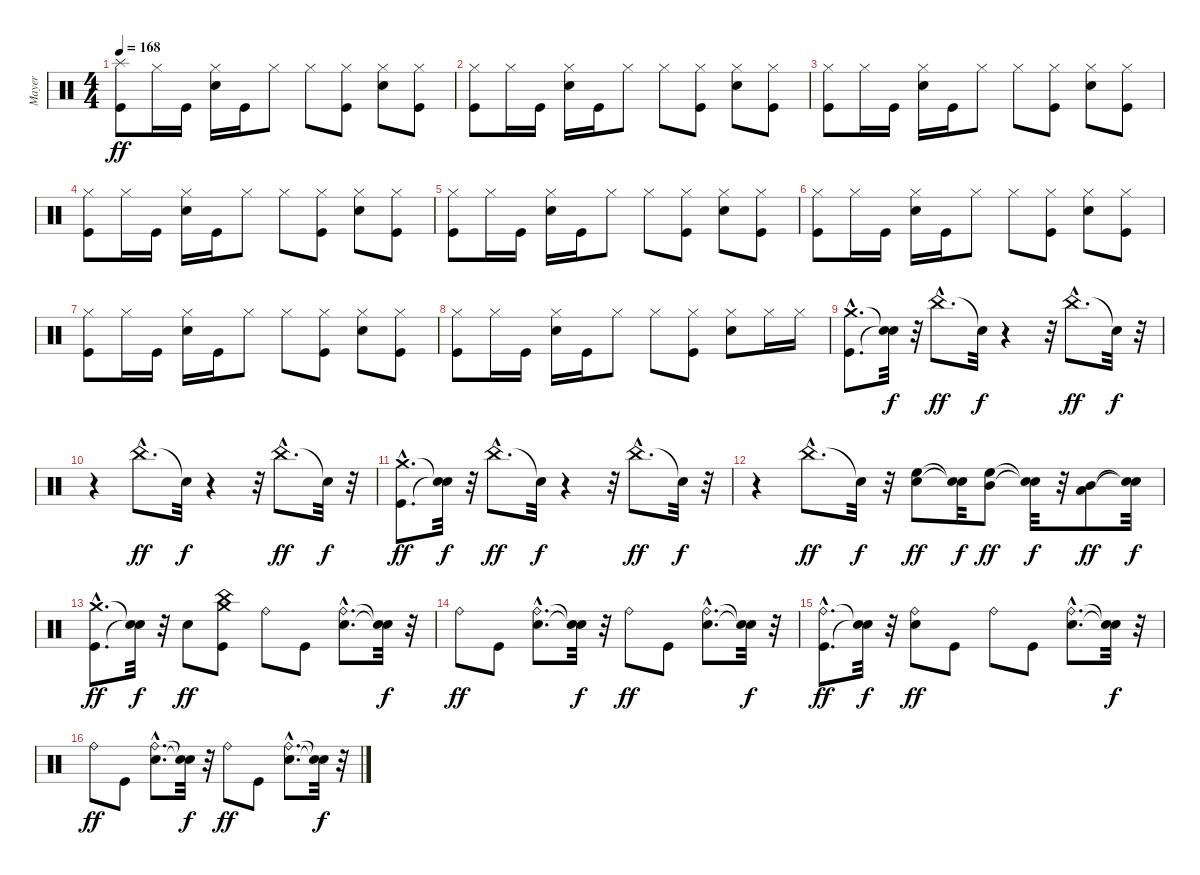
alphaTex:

\track ("Mayer" "Mayer") {instrument percussion}
\staff {score}
\articulation defaults
\ts (4 4)
\tempo 168
\clef neutral
\ks c
("Kick (hit)" "Splash (hit)").8{dy ff} "Hi-Hat (closed)".16 "Kick (hit)".16 ("Electric Snare (hit)" "Hi-Hat (closed)").16 "Kick (hit)".16 "Hi-Hat (closed)".8 "Hi-Hat (closed)".8 ("Kick (hit)" "Hi-Hat (closed)").8 ("Electric Snare (hit)" "Hi-Hat (closed)").8 ("Kick (hit)" "Hi-Hat (closed)").8 |
("Kick (hit)" "Hi-Hat (closed)").8 "Hi-Hat (closed)".16 "Kick (hit)".16 ("Electric Snare (hit)" "Hi-Hat (closed)").16 "Kick (hit)".16 "Hi-Hat (closed)".8 "Hi-Hat (closed)".8 ("Kick (hit)" "Hi-Hat (closed)").8 ("Electric Snare (hit)" "Hi-Hat (closed)").8 ("Kick (hit)" "Hi-Hat (closed)").8 |
("Kick (hit)" "Hi-Hat (closed)").8 "Hi-Hat (closed)".16 "Kick (hit)".16 ("Electric Snare (hit)" "Hi-Hat (closed)").16 "Kick (hit)".16 "Hi-Hat (closed)".8 "Hi-Hat (closed)".8 ("Kick (hit)" "Hi-Hat (closed)").8 ("Electric Snare (hit)" "Hi-Hat (closed)").8 ("Kick (hit)" "Hi-Hat (closed)").8 |
("Kick (hit)" "Hi-Hat (closed)").8 "Hi-Hat (closed)".16 "Kick (hit)".16 ("Electric Snare (hit)" "Hi-Hat (closed)").16 "Kick (hit)".16 "Hi-Hat (closed)".8 "Hi-Hat (closed)".8 ("Kick (hit)" "Hi-Hat (closed)").8 ("Electric Snare (hit)" "Hi-Hat (closed)").8 ("Kick (hit)" "Hi-Hat (closed)").8 |
("Kick (hit)" "Hi-Hat (closed)").8 "Hi-Hat (closed)".16 "Kick (hit)".16 ("Electric Snare (hit)" "Hi-Hat (closed)").16 "Kick (hit)".16 "Hi-Hat (closed)".8 "Hi-Hat (closed)".8 ("Kick (hit)" "Hi-Hat (closed)").8 ("Electric Snare (hit)" "Hi-Hat (closed)").8 ("Kick (hit)" "Hi-Hat (closed)").8 |
("Kick (hit)" "Hi-Hat (closed)").8 "Hi-Hat (closed)".16 "Kick (hit)".16 ("Electric Snare (hit)" "Hi-Hat (closed)").16 "Kick (hit)".16 "Hi-Hat (closed)".8 "Hi-Hat (closed)".8 ("Kick (hit)" "Hi-Hat (closed)").8 ("Electric Snare (hit)" "Hi-Hat (closed)").8 ("Kick (hit)" "Hi-Hat (closed)").8 |
("Kick (hit)" "Hi-Hat (closed)").8 "Hi-Hat (closed)".16 "Kick (hit)".16 ("Electric Snare (hit)" "Hi-Hat (closed)").16 "Kick (hit)".16 "Hi-Hat (closed)".8 "Hi-Hat (closed)".8 ("Kick (hit)" "Hi-Hat (closed)").8 ("Electric Snare (hit)" "Hi-Hat (closed)").8 ("Kick (hit)" "Hi-Hat (closed)").8 |
("Kick (hit)" "Hi-Hat (closed)").8 "Hi-Hat (closed)".16 "Kick (hit)".16 ("Electric Snare (hit)" "Hi-Hat (closed)").16 "Kick (hit)".16 "Hi-Hat (closed)".8 "Hi-Hat (closed)".8 ("Kick (hit)" "Hi-Hat (closed)").8 ("Electric Snare (hit)" "Hi-Hat (closed)").8 "Hi-Hat (closed)".16 "Hi-Hat (closed)".16 |
("Kick (hit)"{hac} "Crash medium (hit)"{hac}).8{d} ("Snare (hit)"{t} "Snare (hit)"{t}).32{dy f} r.32 "China (hit)"{hac}.8{d dy ff} "Snare (hit)"{t}.32{dy f} r.4 r.32 "China (hit)"{hac}.8{d dy ff} "Snare (hit)"{t}.32{dy f} r.32 |
r.4 "China (hit)"{hac}.8{d dy ff} "Snare (hit)"{t}.32{dy f} r.4 r.32 "China (hit)"{hac}.8{d dy ff} "Snare (hit)"{t}.32{dy f} r.32 |
("Kick (hit)"{hac} "Crash medium (hit)"{hac}).8{d dy ff} ("Snare (hit)"{t} "Snare (hit)"{t}).32{dy f} r.32 "China (hit)"{hac}.8{d dy ff} "Snare (hit)"{t}.32{dy f} r.4 r.32 "China (hit)"{hac}.8{d dy ff} "Snare (hit)"{t}.32{dy f} r.32 |
r.4 "China (hit)"{hac}.8{d dy ff} "Snare (hit)"{t}.32{dy f} r.32 ("Electric Snare (hit)" "High Floor Tom (hit)").8{dy ff} ("Snare (hit)"{t} "Snare (hit)"{t}).32{dy f} ("Mid Tom (hit)" "High Floor Tom (hit)").8{dy ff} ("Snare (hit)"{t} "Snare (hit)"{t}).32{dy f} r.32 ("Low Tom (hit)" "Mid Tom (hit)").8{dy ff} ("Snare (hit)"{t} "Snare (hit)"{t}).32{dy f} |
("Kick (hit)"{hac} "Crash medium (hit)"{hac}).8{d dy ff} ("Snare (hit)"{t} "Snare (hit)"{t}).32{dy f} r.32 "Electric Snare (hit)".8{dy ff} ("Kick (hit)" "China (hit)" "Crash medium (hit)").8 "Ride (bell)".8 "Kick (hit)".8 ("Electric Snare (hit)"{hac} "Ride (bell)"{hac}).8{d} ("Snare (hit)"{t} "Snare (hit)"{t}).32{dy f} r.32 |
"Ride (bell)".8{dy ff} "Kick (hit)".8 ("Electric Snare (hit)"{hac} "Ride (bell)"{hac}).8{d} ("Snare (hit)"{t} "Snare (hit)"{t}).32{dy f} r.32 "Ride (bell)".8{dy ff} "Kick (hit)".8 ("Electric Snare (hit)"{hac} "Ride (bell)"{hac}).8{d} ("Snare (hit)"{t} "Snare (hit)"{t}).32{dy f} r.32 |
("Kick (hit)"{hac} "Ride (bell)"{hac}).8{d dy ff} ("Snare (hit)"{t} "Snare (hit)"{t}).32{dy f} r.32 ("Electric Snare (hit)" "Ride (bell)").8{dy ff} "Kick (hit)".8 "Ride (bell)".8 "Kick (hit)".8 ("Electric Snare (hit)"{hac} "Ride (bell)"{hac}).8{d} ("Snare (hit)"{t} "Snare (hit)"{t}).32{dy f} r.32 |
"Ride (bell)".8{dy ff} "Kick (hit)".8 ("Electric Snare (hit)"{hac} "Ride (bell)"{hac}).8{d} ("Snare (hit)"{t} "Snare (hit)"{t}).32{dy f} r.32 "Ride (bell)".8{dy ff} "Kick (hit)".8 ("Electric Snare (hit)"{hac} "Ride (bell)"{hac}).8{d} ("Snare (hit)"{t} "Snare (hit)"{t}).32{dy f} r.32
